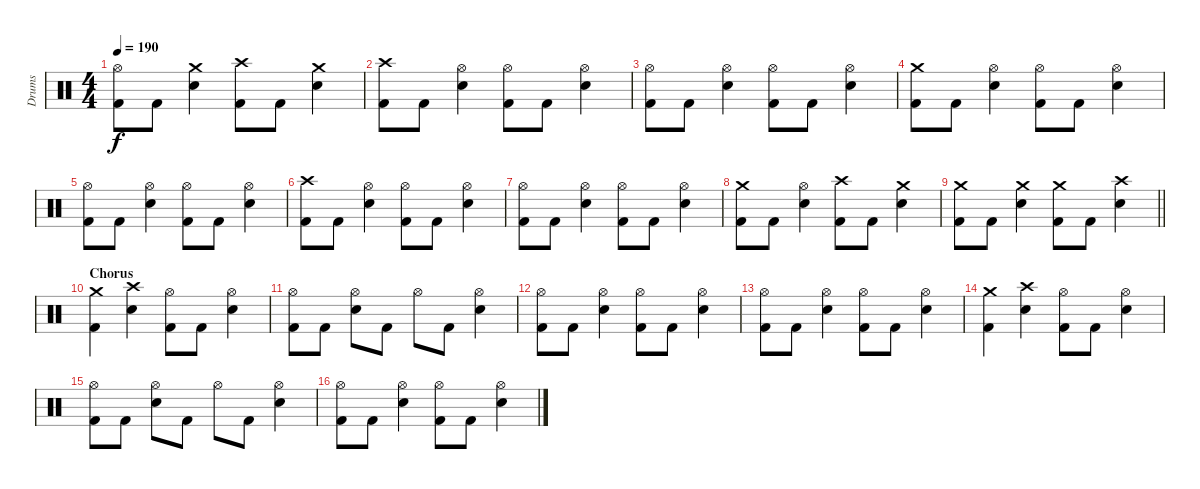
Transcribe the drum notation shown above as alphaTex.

\track ("Drums" "Drums") {instrument percussion}
\staff {score}
\articulation defaults
\ts (4 4)
\tempo 190
\clef neutral
\ks c
("Hi-Hat (open)" "Kick (hit) 2").8{dy f} "Kick (hit) 2".8 ("Crash medium (hit)" "Electric Snare (hit)").4 ("Crash high (hit)" "Kick (hit) 2").8 "Kick (hit) 2".8 ("Crash medium (hit)" "Electric Snare (hit)").4 |
("Crash high (hit)" "Kick (hit) 2").8 "Kick (hit) 2".8 ("Hi-Hat (open)" "Electric Snare (hit)").4 ("Hi-Hat (open)" "Kick (hit) 2").8 "Kick (hit) 2".8 ("Hi-Hat (open)" "Electric Snare (hit)").4 |
("Hi-Hat (open)" "Kick (hit) 2").8 "Kick (hit) 2".8 ("Hi-Hat (open)" "Electric Snare (hit)").4 ("Hi-Hat (open)" "Kick (hit) 2").8 "Kick (hit) 2".8 ("Hi-Hat (open)" "Electric Snare (hit)").4 |
("Crash medium (hit)" "Kick (hit) 2").8 "Kick (hit) 2".8 ("Hi-Hat (open)" "Electric Snare (hit)").4 ("Hi-Hat (open)" "Kick (hit) 2").8 "Kick (hit) 2".8 ("Hi-Hat (open)" "Electric Snare (hit)").4 |
("Hi-Hat (open)" "Kick (hit) 2").8 "Kick (hit) 2".8 ("Hi-Hat (open)" "Electric Snare (hit)").4 ("Hi-Hat (open)" "Kick (hit) 2").8 "Kick (hit) 2".8 ("Hi-Hat (open)" "Electric Snare (hit)").4 |
("Crash high (hit)" "Kick (hit) 2").8 "Kick (hit) 2".8 ("Hi-Hat (open)" "Electric Snare (hit)").4 ("Hi-Hat (open)" "Kick (hit) 2").8 "Kick (hit) 2".8 ("Hi-Hat (open)" "Electric Snare (hit)").4 |
("Hi-Hat (open)" "Kick (hit) 2").8 "Kick (hit) 2".8 ("Hi-Hat (open)" "Electric Snare (hit)").4 ("Hi-Hat (open)" "Kick (hit) 2").8 "Kick (hit) 2".8 ("Hi-Hat (open)" "Electric Snare (hit)").4 |
("Crash medium (hit)" "Kick (hit) 2").8 "Kick (hit) 2".8 ("Hi-Hat (open)" "Electric Snare (hit)").4 ("Crash high (hit)" "Kick (hit) 2").8 "Kick (hit) 2".8 ("Crash medium (hit)" "Electric Snare (hit)").4 |
\barLineRight lightlight
("Crash medium (hit)" "Kick (hit) 2").8 "Kick (hit) 2".8 ("Crash medium (hit)" "Electric Snare (hit)").4 ("Crash medium (hit)" "Kick (hit) 2").8 "Kick (hit) 2".8 ("Crash high (hit)" "Electric Snare (hit)").4 |
\section ("" "Chorus")
("Crash medium (hit)" "Kick (hit) 2").4 ("Crash high (hit)" "Electric Snare (hit)").4 ("Hi-Hat (open)" "Kick (hit) 2").8 "Kick (hit) 2".8 ("Hi-Hat (open)" "Electric Snare (hit)").4 |
("Hi-Hat (open)" "Kick (hit) 2").8 "Kick (hit) 2".8 ("Hi-Hat (open)" "Electric Snare (hit)").8 "Kick (hit) 2".8 "Hi-Hat (open)".8 "Kick (hit) 2".8 ("Hi-Hat (open)" "Electric Snare (hit)").4 |
("Hi-Hat (open)" "Kick (hit) 2").8 "Kick (hit) 2".8 ("Hi-Hat (open)" "Electric Snare (hit)").4 ("Hi-Hat (open)" "Kick (hit) 2").8 "Kick (hit) 2".8 ("Hi-Hat (open)" "Electric Snare (hit)").4 |
("Hi-Hat (open)" "Kick (hit) 2").8 "Kick (hit) 2".8 ("Hi-Hat (open)" "Electric Snare (hit)").4 ("Hi-Hat (open)" "Kick (hit) 2").8 "Kick (hit) 2".8 ("Hi-Hat (open)" "Electric Snare (hit)").4 |
("Crash medium (hit)" "Kick (hit) 2").4 ("Crash high (hit)" "Electric Snare (hit)").4 ("Hi-Hat (open)" "Kick (hit) 2").8 "Kick (hit) 2".8 ("Hi-Hat (open)" "Electric Snare (hit)").4 |
("Hi-Hat (open)" "Kick (hit) 2").8 "Kick (hit) 2".8 ("Hi-Hat (open)" "Electric Snare (hit)").8 "Kick (hit) 2".8 "Hi-Hat (open)".8 "Kick (hit) 2".8 ("Hi-Hat (open)" "Electric Snare (hit)").4 |
("Hi-Hat (open)" "Kick (hit) 2").8 "Kick (hit) 2".8 ("Hi-Hat (open)" "Electric Snare (hit)").4 ("Hi-Hat (open)" "Kick (hit) 2").8 "Kick (hit) 2".8 ("Hi-Hat (open)" "Electric Snare (hit)").4
